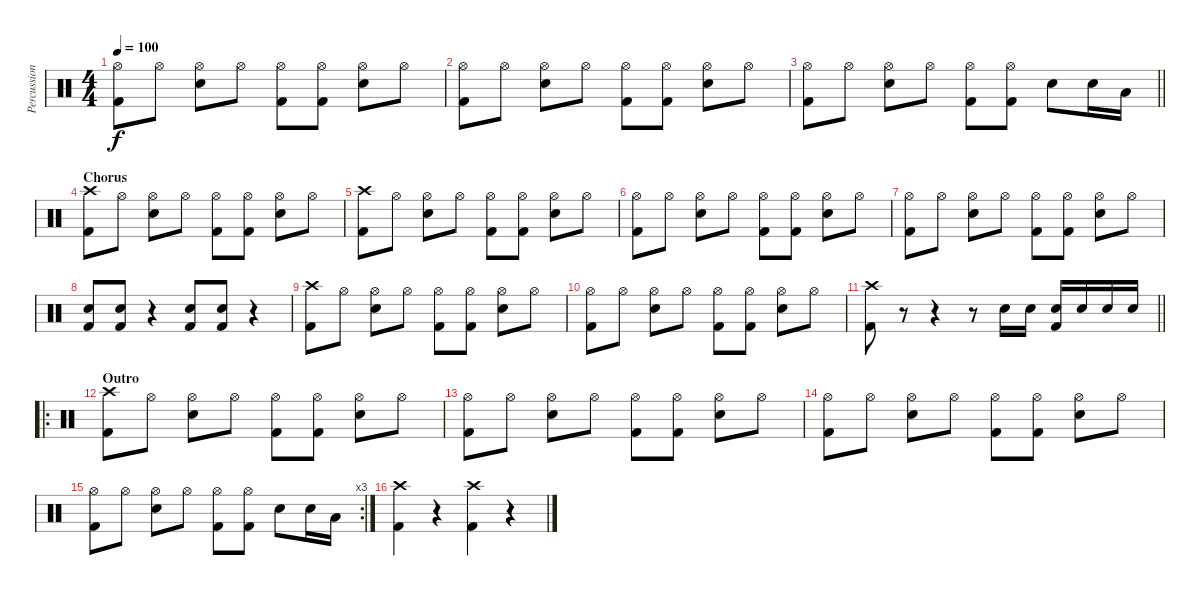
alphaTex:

\track ("Percussion" "Percussion") {instrument percussion}
\staff {score}
\articulation defaults
\ts (4 4)
\tempo 100
\clef neutral
\ks c
("Hi-Hat (open)" "Kick (hit) 2").8{dy f} "Hi-Hat (open)".8 ("Hi-Hat (open)" "Electric Snare (hit)").8 "Hi-Hat (open)".8 ("Hi-Hat (open)" "Kick (hit) 2").8 ("Hi-Hat (open)" "Kick (hit) 2").8 ("Hi-Hat (open)" "Electric Snare (hit)").8 "Hi-Hat (open)".8 |
("Hi-Hat (open)" "Kick (hit) 2").8 "Hi-Hat (open)".8 ("Hi-Hat (open)" "Electric Snare (hit)").8 "Hi-Hat (open)".8 ("Hi-Hat (open)" "Kick (hit) 2").8 ("Hi-Hat (open)" "Kick (hit) 2").8 ("Hi-Hat (open)" "Electric Snare (hit)").8 "Hi-Hat (open)".8 |
\barLineRight lightlight
("Hi-Hat (open)" "Kick (hit) 2").8 "Hi-Hat (open)".8 ("Hi-Hat (open)" "Electric Snare (hit)").8 "Hi-Hat (open)".8 ("Hi-Hat (open)" "Kick (hit) 2").8 ("Hi-Hat (open)" "Kick (hit) 2").8 "Electric Snare (hit)".8 "Electric Snare (hit)".16 "Low Tom (hit)".16 |
\section ("" "Chorus")
("Crash high (hit)" "Kick (hit) 2").8 "Hi-Hat (open)".8 ("Hi-Hat (open)" "Electric Snare (hit)").8 "Hi-Hat (open)".8 ("Hi-Hat (open)" "Kick (hit) 2").8 ("Hi-Hat (open)" "Kick (hit) 2").8 ("Hi-Hat (open)" "Electric Snare (hit)").8 "Hi-Hat (open)".8 |
("Crash high (hit)" "Kick (hit) 2").8 "Hi-Hat (open)".8 ("Hi-Hat (open)" "Electric Snare (hit)").8 "Hi-Hat (open)".8 ("Hi-Hat (open)" "Kick (hit) 2").8 ("Hi-Hat (open)" "Kick (hit) 2").8 ("Hi-Hat (open)" "Electric Snare (hit)").8 "Hi-Hat (open)".8 |
("Hi-Hat (open)" "Kick (hit) 2").8 "Hi-Hat (open)".8 ("Hi-Hat (open)" "Electric Snare (hit)").8 "Hi-Hat (open)".8 ("Hi-Hat (open)" "Kick (hit) 2").8 ("Hi-Hat (open)" "Kick (hit) 2").8 ("Hi-Hat (open)" "Electric Snare (hit)").8 "Hi-Hat (open)".8 |
("Hi-Hat (open)" "Kick (hit) 2").8 "Hi-Hat (open)".8 ("Hi-Hat (open)" "Electric Snare (hit)").8 "Hi-Hat (open)".8 ("Hi-Hat (open)" "Kick (hit) 2").8 ("Hi-Hat (open)" "Kick (hit) 2").8 ("Hi-Hat (open)" "Electric Snare (hit)").8 "Hi-Hat (open)".8 |
("Electric Snare (hit)" "Kick (hit) 2").8 ("Electric Snare (hit)" "Kick (hit) 2").8 r.4 ("Electric Snare (hit)" "Kick (hit) 2").8 ("Electric Snare (hit)" "Kick (hit) 2").8 r.4 |
("Crash high (hit)" "Kick (hit) 2").8 "Hi-Hat (open)".8 ("Hi-Hat (open)" "Electric Snare (hit)").8 "Hi-Hat (open)".8 ("Hi-Hat (open)" "Kick (hit) 2").8 ("Hi-Hat (open)" "Kick (hit) 2").8 ("Hi-Hat (open)" "Electric Snare (hit)").8 "Hi-Hat (open)".8 |
("Hi-Hat (open)" "Kick (hit) 2").8 "Hi-Hat (open)".8 ("Hi-Hat (open)" "Electric Snare (hit)").8 "Hi-Hat (open)".8 ("Hi-Hat (open)" "Kick (hit) 2").8 ("Hi-Hat (open)" "Kick (hit) 2").8 ("Hi-Hat (open)" "Electric Snare (hit)").8 "Hi-Hat (open)".8 |
\barLineRight lightlight
("Crash high (hit)" "Kick (hit) 2").8 r.8 r.4 r.8 "Electric Snare (hit)".16 "Electric Snare (hit)".16 ("Electric Snare (hit)" "Kick (hit) 2").16 "Electric Snare (hit)".16 "Electric Snare (hit)".16 "Electric Snare (hit)".16 |
\ro
\section ("" "Outro")
("Crash high (hit)" "Kick (hit) 2").8 "Hi-Hat (open)".8 ("Hi-Hat (open)" "Electric Snare (hit)").8 "Hi-Hat (open)".8 ("Hi-Hat (open)" "Kick (hit) 2").8 ("Hi-Hat (open)" "Kick (hit) 2").8 ("Hi-Hat (open)" "Electric Snare (hit)").8 "Hi-Hat (open)".8 |
("Hi-Hat (open)" "Kick (hit) 2").8 "Hi-Hat (open)".8 ("Hi-Hat (open)" "Electric Snare (hit)").8 "Hi-Hat (open)".8 ("Hi-Hat (open)" "Kick (hit) 2").8 ("Hi-Hat (open)" "Kick (hit) 2").8 ("Hi-Hat (open)" "Electric Snare (hit)").8 "Hi-Hat (open)".8 |
("Hi-Hat (open)" "Kick (hit) 2").8 "Hi-Hat (open)".8 ("Hi-Hat (open)" "Electric Snare (hit)").8 "Hi-Hat (open)".8 ("Hi-Hat (open)" "Kick (hit) 2").8 ("Hi-Hat (open)" "Kick (hit) 2").8 ("Hi-Hat (open)" "Electric Snare (hit)").8 "Hi-Hat (open)".8 |
\rc 3
("Hi-Hat (open)" "Kick (hit) 2").8 "Hi-Hat (open)".8 ("Hi-Hat (open)" "Electric Snare (hit)").8 "Hi-Hat (open)".8 ("Hi-Hat (open)" "Kick (hit) 2").8 ("Hi-Hat (open)" "Kick (hit) 2").8 "Electric Snare (hit)".8 "Electric Snare (hit)".16 "Low Tom (hit)".16 |
("Crash high (hit)" "Kick (hit) 2").4 r.4 ("Crash high (hit)" "Kick (hit) 2").4 r.4
